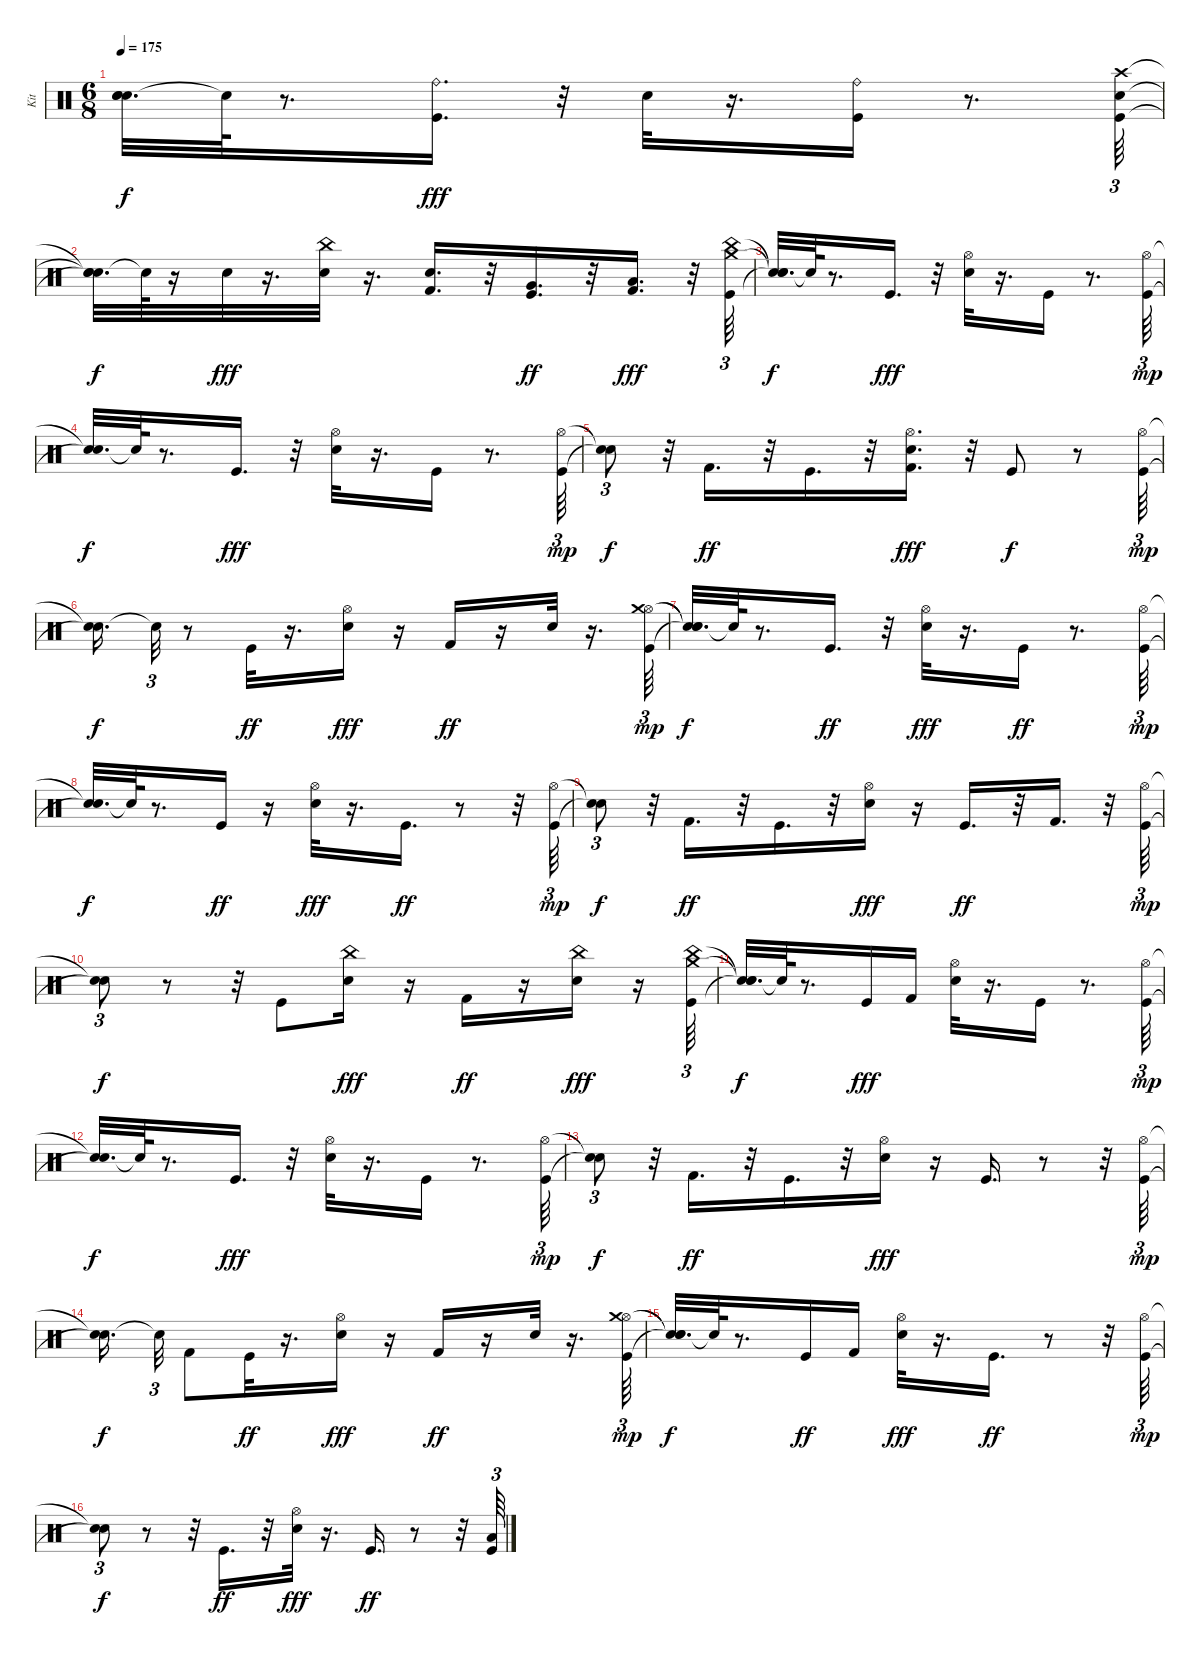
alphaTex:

\track ("Kit" "Kit") {instrument percussion}
\staff {score}
\articulation defaults
\ts (6 8)
\tempo 175
\clef neutral
\ks c
("Snare (hit)"{t} "Snare (hit)"{t} "Snare (hit)"{t}).32{d dy f} "Snare (hit)"{t}.64 r.8{d} ("Kick (hit)" "Ride (bell)").16{d dy fff} r.32 "Snare (hit) 2".32 r.16{d} ("Kick (hit)" "Ride (bell)").16 r.8{d} ("Kick (hit)" "Snare (hit) 2" "Crash high (hit)").64{tu (3 2)} |
("Snare (hit)"{t} "Snare (hit)"{t} "Snare (hit)"{t}).32{d dy f} "Snare (hit)"{t}.64 r.16 "Snare (hit) 2".32{dy fff} r.16{d} ("Snare (hit) 2" "China (hit)").32 r.16{d} ("Kick (hit) 2" "Snare (hit) 2").16{d} r.32 ("Kick (hit)" "Very Low Tom (hit)").16{d dy ff} r.32 ("Kick (hit) 2" "Low Floor Tom (hit)").16{d dy fff} r.32 ("Kick (hit)" "China (hit)" "Crash medium (hit)").64{tu (3 2)} |
("Snare (hit)"{t} "Snare (hit)"{t} "Snare (hit)"{t}).32{d dy f} "Snare (hit)"{t}.64 r.8{d} "Kick (hit)".16{d dy fff} r.32 ("Snare (hit) 2" "Hi-Hat (open)").32 r.16{d} "Kick (hit)".16 r.8{d} ("Kick (hit)" "Hi-Hat (open)").64{tu (3 2) dy mp} |
("Snare (hit)"{t} "Snare (hit)"{t}).32{d dy f} "Snare (hit)"{t}.64 r.8{d} "Kick (hit)".16{d dy fff} r.32 ("Snare (hit) 2" "Hi-Hat (open)").32 r.16{d} "Kick (hit)".16 r.8{d} ("Kick (hit)" "Hi-Hat (open)").64{tu (3 2) dy mp} |
("Snare (hit)"{t} "Snare (hit)"{t}).8{tu (3 2) dy f} r.32 "Kick (hit) 2".16{d dy ff} r.32 "Kick (hit)".16{d} r.32 ("Kick (hit) 2" "Snare (hit) 2" "Hi-Hat (open)").16{d dy fff} r.32 "Kick (hit)".8{dy f} r.8 ("Kick (hit)" "Hi-Hat (open)").64{tu (3 2) dy mp} |
("Snare (hit)"{t} "Snare (hit)"{t}).16{d dy f} "Snare (hit)"{t}.32{tu (3 2)} r.8 "Kick (hit)".32{dy ff} r.16{d} ("Snare (hit) 2" "Hi-Hat (open)").16{dy fff} r.16 "Kick (hit) 2".16{dy ff} r.16 "Snare (hit) 2".32 r.16{d} ("Kick (hit)" "Hi-Hat (open)" "Crash medium (hit)").64{tu (3 2) dy mp} |
("Snare (hit)"{t} "Snare (hit)"{t} "Snare (hit)"{t}).32{d dy f} "Snare (hit)"{t}.64 r.8{d} "Kick (hit)".16{d dy ff} r.32 ("Snare (hit) 2" "Hi-Hat (open)").32{dy fff} r.16{d} "Kick (hit)".16{dy ff} r.8{d} ("Kick (hit)" "Hi-Hat (open)").64{tu (3 2) dy mp} |
("Snare (hit)"{t} "Snare (hit)"{t}).32{d dy f} "Snare (hit)"{t}.64 r.8{d} "Kick (hit)".16{dy ff} r.16 ("Snare (hit) 2" "Hi-Hat (open)").32{dy fff} r.16{d} "Kick (hit)".16{d dy ff} r.8 r.32 ("Kick (hit)" "Hi-Hat (open)").64{tu (3 2) dy mp} |
("Snare (hit)"{t} "Snare (hit)"{t}).8{tu (3 2) dy f} r.32 "Kick (hit) 2".16{d dy ff} r.32 "Kick (hit)".16{d} r.32 ("Snare (hit) 2" "Hi-Hat (open)").16{dy fff} r.16 "Kick (hit)".16{d dy ff} r.32 "Kick (hit) 2".16{d} r.32 ("Kick (hit)" "Hi-Hat (open)").64{tu (3 2) dy mp} |
("Snare (hit)"{t} "Snare (hit)"{t}).8{tu (3 2) dy f} r.8 r.32 "Kick (hit)".8 ("Snare (hit) 2" "China (hit)").16{dy fff} r.16 "Kick (hit) 2".16{dy ff} r.16 ("Snare (hit) 2" "China (hit)").16{dy fff} r.16 ("Kick (hit)" "China (hit)" "Crash medium (hit)").64{tu (3 2)} |
("Snare (hit)"{t} "Snare (hit)"{t} "Snare (hit)"{t}).32{d dy f} "Snare (hit)"{t}.64 r.8{d} "Kick (hit)".16{dy fff} "Kick (hit) 2".16 ("Snare (hit) 2" "Hi-Hat (open)").32 r.16{d} "Kick (hit)".16 r.8{d} ("Kick (hit)" "Hi-Hat (open)").64{tu (3 2) dy mp} |
("Snare (hit)"{t} "Snare (hit)"{t}).32{d dy f} "Snare (hit)"{t}.64 r.8{d} "Kick (hit)".16{d dy fff} r.32 ("Snare (hit) 2" "Hi-Hat (open)").32 r.16{d} "Kick (hit)".16 r.8{d} ("Kick (hit)" "Hi-Hat (open)").64{tu (3 2) dy mp} |
("Snare (hit)"{t} "Snare (hit)"{t}).8{tu (3 2) dy f} r.32 "Kick (hit) 2".16{d dy ff} r.32 "Kick (hit)".16{d} r.32 ("Snare (hit) 2" "Hi-Hat (open)").16{dy fff} r.16 "Kick (hit)".16{d} r.8 r.32 ("Kick (hit)" "Hi-Hat (open)").64{tu (3 2) dy mp} |
("Snare (hit)"{t} "Snare (hit)"{t}).16{d dy f beam splitsecondary} "Snare (hit)"{t}.32{tu (3 2)} "Kick (hit) 2".8 "Kick (hit)".32{dy ff} r.16{d} ("Snare (hit) 2" "Hi-Hat (open)").16{dy fff} r.16 "Kick (hit) 2".16{dy ff} r.16 "Snare (hit) 2".32 r.16{d} ("Kick (hit)" "Hi-Hat (open)" "Crash medium (hit)").64{tu (3 2) dy mp} |
("Snare (hit)"{t} "Snare (hit)"{t} "Snare (hit)"{t}).32{d dy f} "Snare (hit)"{t}.64 r.8{d} "Kick (hit)".16{dy ff} "Kick (hit) 2".16 ("Snare (hit) 2" "Hi-Hat (open)").32{dy fff} r.16{d} "Kick (hit)".16{d dy ff} r.8 r.32 ("Kick (hit)" "Hi-Hat (open)").64{tu (3 2) dy mp} |
("Snare (hit)"{t} "Snare (hit)"{t}).8{tu (3 2) dy f} r.8 r.32 "Kick (hit)".16{d dy ff} r.32 ("Snare (hit) 2" "Hi-Hat (open)").32{dy fff} r.16{d} "Kick (hit)".16{d dy ff} r.8 r.32 ("Kick (hit)" "Low Tom (hit)").64{tu (3 2)}
